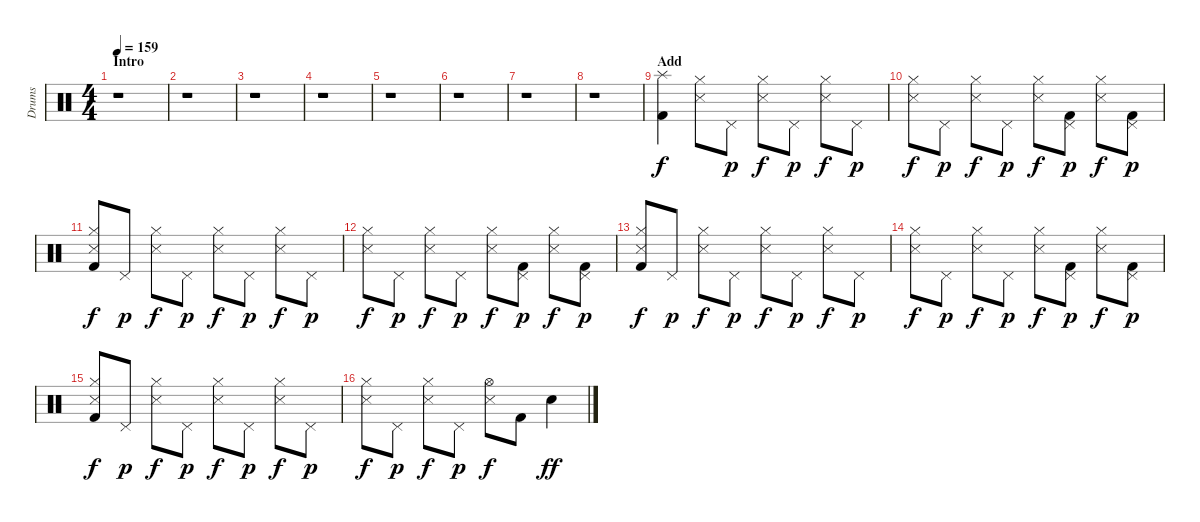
\track ("Drums" "Drums") {instrument percussion}
\staff {score}
\articulation defaults
\ts (4 4)
\section ("" "Intro")
\tempo 159
\clef neutral
\ks c
r.1{dy f} |
r.1 |
r.1 |
r.1 |
r.1 |
r.1 |
r.1 |
r.1 |
\section ("" "Add")
("Splash (hit)" "Kick (hit) 2").4 ("Hi-Hat (closed)" "Snare (side stick) 3").8 "Pedal Hi-Hat (hit)".8{dy p} ("Hi-Hat (closed)" "Snare (side stick) 3").8{dy f} "Pedal Hi-Hat (hit)".8{dy p} ("Hi-Hat (closed)" "Snare (side stick) 3").8{dy f} "Pedal Hi-Hat (hit)".8{dy p} |
("Hi-Hat (closed)" "Snare (side stick) 3").8{dy f} "Pedal Hi-Hat (hit)".8{dy p} ("Hi-Hat (closed)" "Snare (side stick) 3").8{dy f} "Pedal Hi-Hat (hit)".8{dy p} ("Hi-Hat (closed)" "Snare (side stick) 3").8{dy f} ("Pedal Hi-Hat (hit)" "Kick (hit) 2").8{dy p} ("Hi-Hat (closed)" "Snare (side stick) 3").8{dy f} ("Pedal Hi-Hat (hit)" "Kick (hit) 2").8{dy p} |
("Hi-Hat (closed)" "Snare (side stick) 3" "Kick (hit) 2").8{dy f} "Pedal Hi-Hat (hit)".8{dy p} ("Hi-Hat (closed)" "Snare (side stick) 3").8{dy f} "Pedal Hi-Hat (hit)".8{dy p} ("Hi-Hat (closed)" "Snare (side stick) 3").8{dy f} "Pedal Hi-Hat (hit)".8{dy p} ("Hi-Hat (closed)" "Snare (side stick) 3").8{dy f} "Pedal Hi-Hat (hit)".8{dy p} |
("Hi-Hat (closed)" "Snare (side stick) 3").8{dy f} "Pedal Hi-Hat (hit)".8{dy p} ("Hi-Hat (closed)" "Snare (side stick) 3").8{dy f} "Pedal Hi-Hat (hit)".8{dy p} ("Hi-Hat (closed)" "Snare (side stick) 3").8{dy f} ("Pedal Hi-Hat (hit)" "Kick (hit) 2").8{dy p} ("Hi-Hat (closed)" "Snare (side stick) 3").8{dy f} ("Pedal Hi-Hat (hit)" "Kick (hit) 2").8{dy p} |
("Hi-Hat (closed)" "Snare (side stick) 3" "Kick (hit) 2").8{dy f} "Pedal Hi-Hat (hit)".8{dy p} ("Hi-Hat (closed)" "Snare (side stick) 3").8{dy f} "Pedal Hi-Hat (hit)".8{dy p} ("Hi-Hat (closed)" "Snare (side stick) 3").8{dy f} "Pedal Hi-Hat (hit)".8{dy p} ("Hi-Hat (closed)" "Snare (side stick) 3").8{dy f} "Pedal Hi-Hat (hit)".8{dy p} |
("Hi-Hat (closed)" "Snare (side stick) 3").8{dy f} "Pedal Hi-Hat (hit)".8{dy p} ("Hi-Hat (closed)" "Snare (side stick) 3").8{dy f} "Pedal Hi-Hat (hit)".8{dy p} ("Hi-Hat (closed)" "Snare (side stick) 3").8{dy f} ("Pedal Hi-Hat (hit)" "Kick (hit) 2").8{dy p} ("Hi-Hat (closed)" "Snare (side stick) 3").8{dy f} ("Pedal Hi-Hat (hit)" "Kick (hit) 2").8{dy p} |
("Hi-Hat (closed)" "Snare (side stick) 3" "Kick (hit) 2").8{dy f} "Pedal Hi-Hat (hit)".8{dy p} ("Hi-Hat (closed)" "Snare (side stick) 3").8{dy f} "Pedal Hi-Hat (hit)".8{dy p} ("Hi-Hat (closed)" "Snare (side stick) 3").8{dy f} "Pedal Hi-Hat (hit)".8{dy p} ("Hi-Hat (closed)" "Snare (side stick) 3").8{dy f} "Pedal Hi-Hat (hit)".8{dy p} |
("Hi-Hat (closed)" "Snare (side stick) 3").8{dy f} "Pedal Hi-Hat (hit)".8{dy p} ("Hi-Hat (closed)" "Snare (side stick) 3").8{dy f} "Pedal Hi-Hat (hit)".8{dy p} ("Hi-Hat (open)" "Snare (side stick) 3").8{dy f} "Kick (hit) 2".8 "Electric Snare (hit)".4{dy ff}
